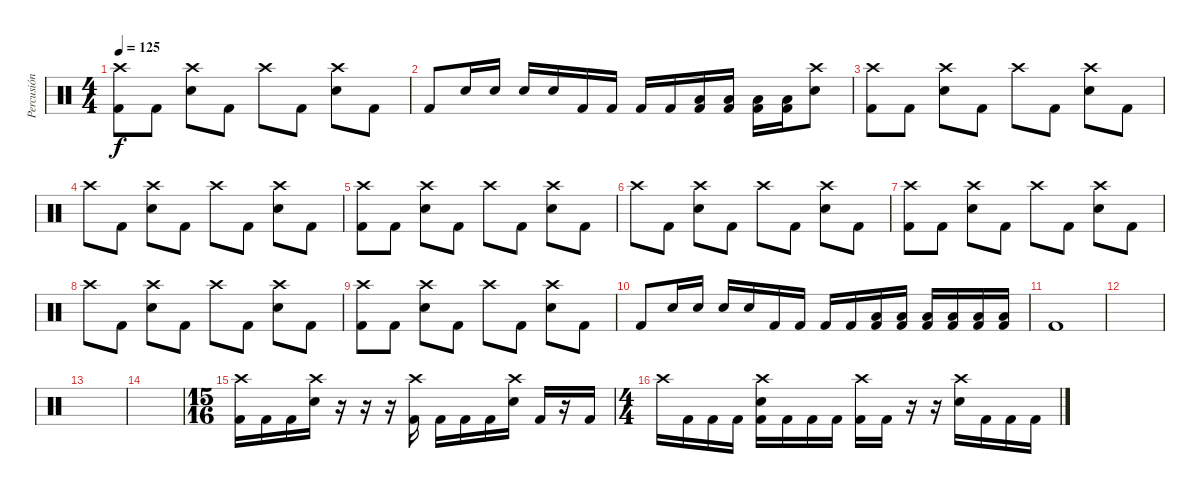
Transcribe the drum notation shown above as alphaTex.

\track ("Percusión" "Percusión") {instrument percussion}
\staff {score}
\articulation defaults
\ts (4 4)
\tempo 125
\clef neutral
\ks c
("Crash high (hit)" "Kick (hit) 2").8{dy f} "Kick (hit) 2".8 ("Crash high (hit)" "Electric Snare (hit)").8 "Kick (hit) 2".8 "Crash high (hit)".8 "Kick (hit) 2".8 ("Crash high (hit)" "Electric Snare (hit)").8 "Kick (hit) 2".8 |
"Kick (hit) 2".8 "Electric Snare (hit)".16 "Electric Snare (hit)".16 "Electric Snare (hit)".16 "Electric Snare (hit)".16 "Kick (hit) 2".16 "Kick (hit) 2".16 "Kick (hit) 2".16 "Kick (hit) 2".16 ("Low Floor Tom (hit)" "Kick (hit) 2").16 ("Low Floor Tom (hit)" "Kick (hit) 2").16 ("Low Floor Tom (hit)" "Kick (hit) 2").16 ("Low Floor Tom (hit)" "Kick (hit) 2").16 ("Crash high (hit)" "Electric Snare (hit)").8 |
("Crash high (hit)" "Kick (hit) 2").8 "Kick (hit) 2".8 ("Crash high (hit)" "Electric Snare (hit)").8 "Kick (hit) 2".8 "Crash high (hit)".8 "Kick (hit) 2".8 ("Crash high (hit)" "Electric Snare (hit)").8 "Kick (hit) 2".8 |
"Crash high (hit)".8 "Kick (hit) 2".8 ("Crash high (hit)" "Electric Snare (hit)").8 "Kick (hit) 2".8 "Crash high (hit)".8 "Kick (hit) 2".8 ("Crash high (hit)" "Electric Snare (hit)").8 "Kick (hit) 2".8 |
("Crash high (hit)" "Kick (hit) 2").8 "Kick (hit) 2".8 ("Crash high (hit)" "Electric Snare (hit)").8 "Kick (hit) 2".8 "Crash high (hit)".8 "Kick (hit) 2".8 ("Crash high (hit)" "Electric Snare (hit)").8 "Kick (hit) 2".8 |
"Crash high (hit)".8 "Kick (hit) 2".8 ("Crash high (hit)" "Electric Snare (hit)").8 "Kick (hit) 2".8 "Crash high (hit)".8 "Kick (hit) 2".8 ("Crash high (hit)" "Electric Snare (hit)").8 "Kick (hit) 2".8 |
("Crash high (hit)" "Kick (hit) 2").8 "Kick (hit) 2".8 ("Crash high (hit)" "Electric Snare (hit)").8 "Kick (hit) 2".8 "Crash high (hit)".8 "Kick (hit) 2".8 ("Crash high (hit)" "Electric Snare (hit)").8 "Kick (hit) 2".8 |
"Crash high (hit)".8 "Kick (hit) 2".8 ("Crash high (hit)" "Electric Snare (hit)").8 "Kick (hit) 2".8 "Crash high (hit)".8 "Kick (hit) 2".8 ("Crash high (hit)" "Electric Snare (hit)").8 "Kick (hit) 2".8 |
("Crash high (hit)" "Kick (hit) 2").8 "Kick (hit) 2".8 ("Crash high (hit)" "Electric Snare (hit)").8 "Kick (hit) 2".8 "Crash high (hit)".8 "Kick (hit) 2".8 ("Crash high (hit)" "Electric Snare (hit)").8 "Kick (hit) 2".8 |
"Kick (hit) 2".8 "Electric Snare (hit)".16 "Electric Snare (hit)".16 "Electric Snare (hit)".16 "Electric Snare (hit)".16 "Kick (hit) 2".16 "Kick (hit) 2".16 "Kick (hit) 2".16 "Kick (hit) 2".16 ("Low Floor Tom (hit)" "Kick (hit) 2").16 ("Low Floor Tom (hit)" "Kick (hit) 2").16 ("Low Floor Tom (hit)" "Kick (hit) 2").16 ("Low Floor Tom (hit)" "Kick (hit) 2").16 ("Low Floor Tom (hit)" "Kick (hit) 2").16 ("Low Floor Tom (hit)" "Kick (hit) 2").16 |
"Kick (hit) 2".1 |
|
|
|
\ts (15 16)
("Crash high (hit)" "Kick (hit) 2").16 "Kick (hit) 2".16 "Kick (hit) 2".16 ("Crash high (hit)" "Electric Snare (hit)").16 r.16 r.16 r.16 ("Crash high (hit)" "Kick (hit) 2").16 "Kick (hit) 2".16 "Kick (hit) 2".16 "Kick (hit) 2".16 ("Crash high (hit)" "Electric Snare (hit)").16 "Kick (hit) 2".16 r.16 "Kick (hit) 2".16 |
\ts (4 4)
"Crash high (hit)".16 "Kick (hit) 2".16 "Kick (hit) 2".16 "Kick (hit) 2".16 ("Crash high (hit)" "Electric Snare (hit)" "Kick (hit) 2").16 "Kick (hit) 2".16 "Kick (hit) 2".16 "Kick (hit) 2".16 ("Crash high (hit)" "Kick (hit) 2").16 "Kick (hit) 2".16 r.16 r.16 ("Crash high (hit)" "Electric Snare (hit)").16 "Kick (hit) 2".16 "Kick (hit) 2".16 "Kick (hit) 2".16
